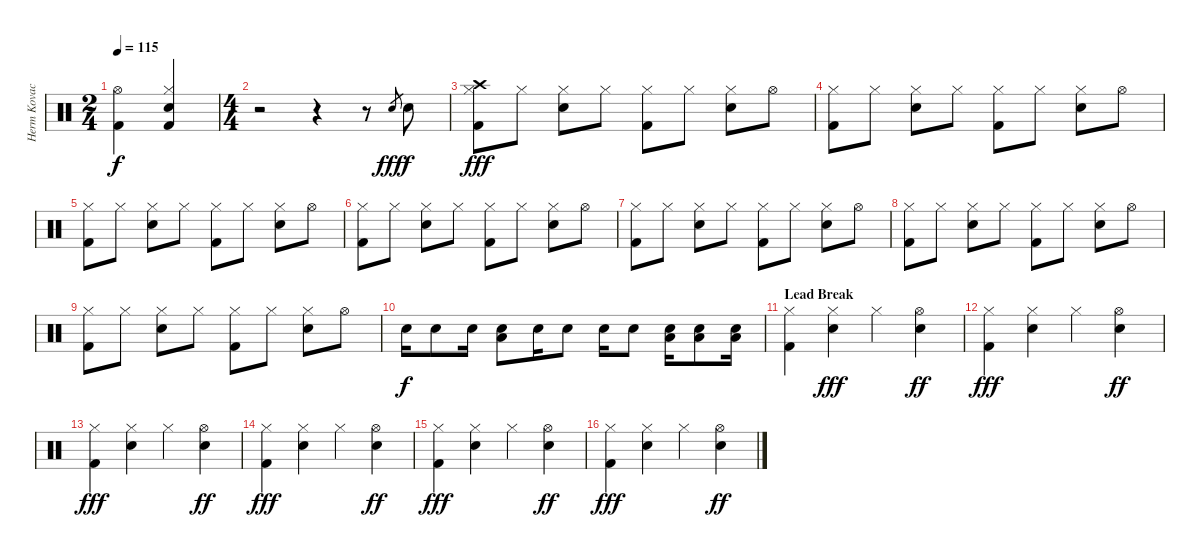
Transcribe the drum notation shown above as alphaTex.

\track ("Herm Kovacs" "Herm Kovac") {instrument percussion}
\staff {score}
\articulation defaults
\ts (2 4)
\tempo 115
\clef neutral
\ks c
("Hi-Hat (open)" "Kick (hit) 2").4{dy f} ("Hi-Hat (closed)" "Electric Snare (hit)" "Kick (hit) 2").4 |
\ts (4 4)
r.2 r.4 r.8 "Electric Snare (hit)".8{gr dy fff} "Electric Snare (hit)".8{dy f} |
("Crash high (hit)" "Hi-Hat (closed)" "Kick (hit) 2").8{dy fff} "Hi-Hat (closed)".8 ("Hi-Hat (closed)" "Electric Snare (hit)").8 "Hi-Hat (closed)".8 ("Hi-Hat (closed)" "Kick (hit) 2").8 "Hi-Hat (closed)".8 ("Hi-Hat (closed)" "Electric Snare (hit)").8 "Hi-Hat (open)".8 |
("Hi-Hat (closed)" "Kick (hit) 2").8 "Hi-Hat (closed)".8 ("Hi-Hat (closed)" "Electric Snare (hit)").8 "Hi-Hat (closed)".8 ("Hi-Hat (closed)" "Kick (hit) 2").8 "Hi-Hat (closed)".8 ("Hi-Hat (closed)" "Electric Snare (hit)").8 "Hi-Hat (open)".8 |
("Hi-Hat (closed)" "Kick (hit) 2").8 "Hi-Hat (closed)".8 ("Hi-Hat (closed)" "Electric Snare (hit)").8 "Hi-Hat (closed)".8 ("Hi-Hat (closed)" "Kick (hit) 2").8 "Hi-Hat (closed)".8 ("Hi-Hat (closed)" "Electric Snare (hit)").8 "Hi-Hat (open)".8 |
("Hi-Hat (closed)" "Kick (hit) 2").8 "Hi-Hat (closed)".8 ("Hi-Hat (closed)" "Electric Snare (hit)").8 "Hi-Hat (closed)".8 ("Hi-Hat (closed)" "Kick (hit) 2").8 "Hi-Hat (closed)".8 ("Hi-Hat (closed)" "Electric Snare (hit)").8 "Hi-Hat (open)".8 |
("Hi-Hat (closed)" "Kick (hit) 2").8 "Hi-Hat (closed)".8 ("Hi-Hat (closed)" "Electric Snare (hit)").8 "Hi-Hat (closed)".8 ("Hi-Hat (closed)" "Kick (hit) 2").8 "Hi-Hat (closed)".8 ("Hi-Hat (closed)" "Electric Snare (hit)").8 "Hi-Hat (open)".8 |
("Hi-Hat (closed)" "Kick (hit) 2").8 "Hi-Hat (closed)".8 ("Hi-Hat (closed)" "Electric Snare (hit)").8 "Hi-Hat (closed)".8 ("Hi-Hat (closed)" "Kick (hit) 2").8 "Hi-Hat (closed)".8 ("Hi-Hat (closed)" "Electric Snare (hit)").8 "Hi-Hat (open)".8 |
("Hi-Hat (closed)" "Kick (hit) 2").8 "Hi-Hat (closed)".8 ("Hi-Hat (closed)" "Electric Snare (hit)").8 "Hi-Hat (closed)".8 ("Hi-Hat (closed)" "Kick (hit) 2").8 "Hi-Hat (closed)".8 ("Hi-Hat (closed)" "Electric Snare (hit)").8 "Hi-Hat (open)".8 |
"Electric Snare (hit)".16{dy f} "Electric Snare (hit)".8 "Electric Snare (hit)".16 ("Low Tom (hit)" "Electric Snare (hit)").8 "Electric Snare (hit)".16 "Electric Snare (hit)".8 "Electric Snare (hit)".16 "Electric Snare (hit)".8 ("Low Tom (hit)" "Electric Snare (hit)").16 ("Low Tom (hit)" "Electric Snare (hit)").8 ("Low Tom (hit)" "Electric Snare (hit)").16 |
\section ("" "Lead Break")
("Hi-Hat (closed)" "Kick (hit) 2").4 ("Hi-Hat (closed)" "Electric Snare (hit)").4{dy fff} "Hi-Hat (closed)".4 ("Hi-Hat (open)" "Electric Snare (hit)").4{dy ff} |
("Hi-Hat (closed)" "Kick (hit) 2").4{dy fff} ("Hi-Hat (closed)" "Electric Snare (hit)").4 "Hi-Hat (closed)".4 ("Hi-Hat (open)" "Electric Snare (hit)").4{dy ff} |
("Hi-Hat (closed)" "Kick (hit) 2").4{dy fff} ("Hi-Hat (closed)" "Electric Snare (hit)").4 "Hi-Hat (closed)".4 ("Hi-Hat (open)" "Electric Snare (hit)").4{dy ff} |
("Hi-Hat (closed)" "Kick (hit) 2").4{dy fff} ("Hi-Hat (closed)" "Electric Snare (hit)").4 "Hi-Hat (closed)".4 ("Hi-Hat (open)" "Electric Snare (hit)").4{dy ff} |
("Hi-Hat (closed)" "Kick (hit) 2").4{dy fff} ("Hi-Hat (closed)" "Electric Snare (hit)").4 "Hi-Hat (closed)".4 ("Hi-Hat (open)" "Electric Snare (hit)").4{dy ff} |
("Hi-Hat (closed)" "Kick (hit) 2").4{dy fff} ("Hi-Hat (closed)" "Electric Snare (hit)").4 "Hi-Hat (closed)".4 ("Hi-Hat (open)" "Electric Snare (hit)").4{dy ff}
